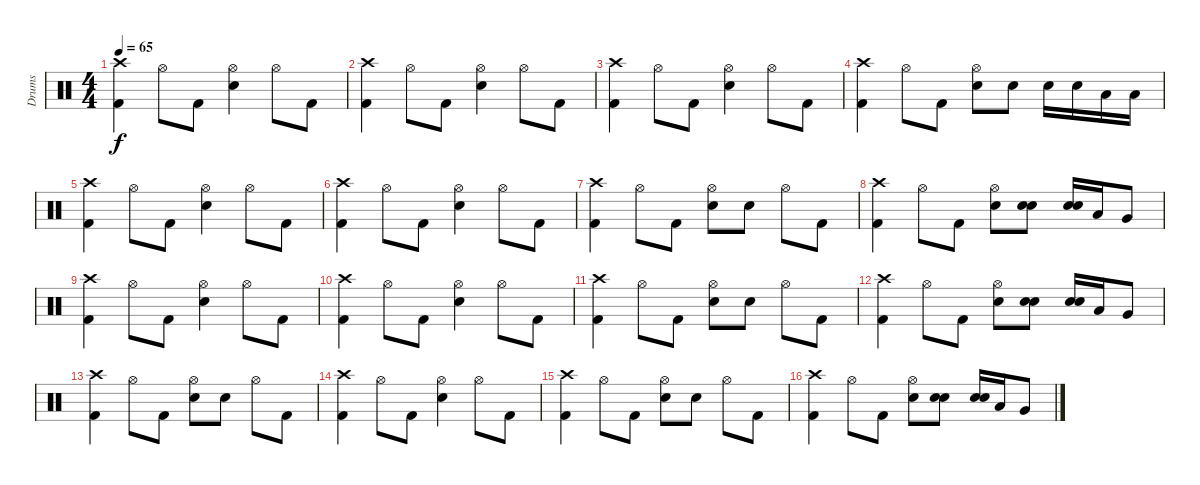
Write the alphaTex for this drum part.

\track ("Drums" "Drums") {instrument percussion}
\staff {score}
\articulation defaults
\ts (4 4)
\tempo 65
\clef neutral
\ks c
("Crash high (hit)" "Kick (hit) 2").4{dy f} "Hi-Hat (open)".8 "Kick (hit) 2".8 ("Hi-Hat (open)" "Electric Snare (hit)").4 "Hi-Hat (open)".8 "Kick (hit) 2".8 |
("Crash high (hit)" "Kick (hit) 2").4 "Hi-Hat (open)".8 "Kick (hit) 2".8 ("Hi-Hat (open)" "Electric Snare (hit)").4 "Hi-Hat (open)".8 "Kick (hit) 2".8 |
("Crash high (hit)" "Kick (hit) 2").4 "Hi-Hat (open)".8 "Kick (hit) 2".8 ("Hi-Hat (open)" "Electric Snare (hit)").4 "Hi-Hat (open)".8 "Kick (hit) 2".8 |
("Crash high (hit)" "Kick (hit) 2").4 "Hi-Hat (open)".8 "Kick (hit) 2".8 ("Hi-Hat (open)" "Electric Snare (hit)").8 "Electric Snare (hit)".8 "Electric Snare (hit)".16 "Electric Snare (hit)".16 "Low Tom (hit)".16 "Low Tom (hit)".16 |
("Crash high (hit)" "Kick (hit) 2").4 "Hi-Hat (open)".8 "Kick (hit) 2".8 ("Hi-Hat (open)" "Electric Snare (hit)").4 "Hi-Hat (open)".8 "Kick (hit) 2".8 |
("Crash high (hit)" "Kick (hit) 2").4 "Hi-Hat (open)".8 "Kick (hit) 2".8 ("Hi-Hat (open)" "Electric Snare (hit)").4 "Hi-Hat (open)".8 "Kick (hit) 2".8 |
("Crash high (hit)" "Kick (hit) 2").4 "Hi-Hat (open)".8 "Kick (hit) 2".8 ("Hi-Hat (open)" "Electric Snare (hit)").8 "Electric Snare (hit)".8 "Hi-Hat (open)".8 "Kick (hit) 2".8 |
("Crash high (hit)" "Kick (hit) 2").4 "Hi-Hat (open)".8 "Kick (hit) 2".8 ("Hi-Hat (open)" "Electric Snare (hit)").8 ("Electric Snare (hit)" "Electric Snare (hit)").8{bu 60} ("Electric Snare (hit)" "Electric Snare (hit)").16{bu 60} "Low Tom (hit)".16 "Very Low Tom (hit)".8 |
("Crash high (hit)" "Kick (hit) 2").4 "Hi-Hat (open)".8 "Kick (hit) 2".8 ("Hi-Hat (open)" "Electric Snare (hit)").4 "Hi-Hat (open)".8 "Kick (hit) 2".8 |
("Crash high (hit)" "Kick (hit) 2").4 "Hi-Hat (open)".8 "Kick (hit) 2".8 ("Hi-Hat (open)" "Electric Snare (hit)").4 "Hi-Hat (open)".8 "Kick (hit) 2".8 |
("Crash high (hit)" "Kick (hit) 2").4 "Hi-Hat (open)".8 "Kick (hit) 2".8 ("Hi-Hat (open)" "Electric Snare (hit)").8 "Electric Snare (hit)".8 "Hi-Hat (open)".8 "Kick (hit) 2".8 |
("Crash high (hit)" "Kick (hit) 2").4 "Hi-Hat (open)".8 "Kick (hit) 2".8 ("Hi-Hat (open)" "Electric Snare (hit)").8 ("Electric Snare (hit)" "Electric Snare (hit)").8{bu 60} ("Electric Snare (hit)" "Electric Snare (hit)").16{bu 60} "Low Tom (hit)".16 "Very Low Tom (hit)".8 |
("Crash high (hit)" "Kick (hit) 2").4 "Hi-Hat (open)".8 "Kick (hit) 2".8 ("Hi-Hat (open)" "Electric Snare (hit)").8 "Electric Snare (hit)".8 "Hi-Hat (open)".8 "Kick (hit) 2".8 |
("Crash high (hit)" "Kick (hit) 2").4 "Hi-Hat (open)".8 "Kick (hit) 2".8 ("Hi-Hat (open)" "Electric Snare (hit)").4 "Hi-Hat (open)".8 "Kick (hit) 2".8 |
("Crash high (hit)" "Kick (hit) 2").4 "Hi-Hat (open)".8 "Kick (hit) 2".8 ("Hi-Hat (open)" "Electric Snare (hit)").8 "Electric Snare (hit)".8 "Hi-Hat (open)".8 "Kick (hit) 2".8 |
("Crash high (hit)" "Kick (hit) 2").4 "Hi-Hat (open)".8 "Kick (hit) 2".8 ("Hi-Hat (open)" "Electric Snare (hit)").8 ("Electric Snare (hit)" "Electric Snare (hit)").8{bu 60} ("Electric Snare (hit)" "Electric Snare (hit)").16{bu 60} "Low Tom (hit)".16 "Very Low Tom (hit)".8
